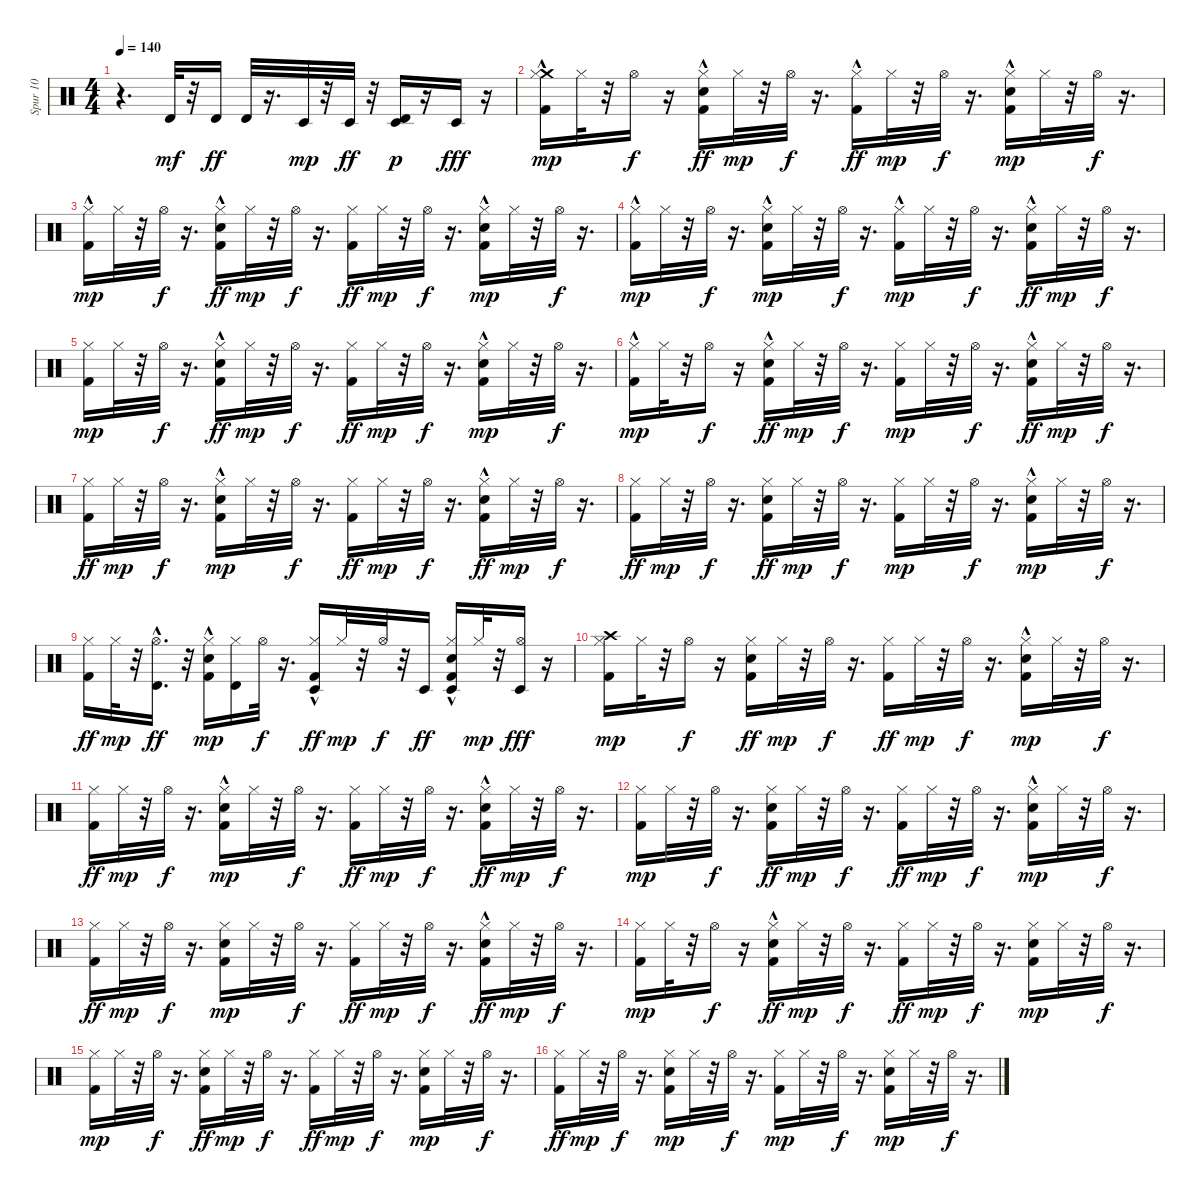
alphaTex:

\track ("Spur 10" "Spur 10") {instrument percussion}
\staff {score}
\articulation defaults
\ts (4 4)
\tempo 140
\clef neutral
\ks c
r.4{d dy f} "Timbale high (hit)".32{dy mf} r.32 "Timbale high (hit)".16{dy ff} "Timbale high (hit)".32 r.16{d} "Timbale low (hit)".32{dy mp} r.32 "Timbale low (hit)".32{dy ff} r.32 ("Timbale low (hit)" "Timbale high (hit)").16{dy p} r.16 "Timbale low (hit)".16{dy fff} r.16 |
("Crash medium (hit)" "Kick (hit) 2"{hac} "Hi-Hat (closed)").16{dy mp} "Hi-Hat (closed)".32 r.32 "Hi-Hat (open)".16{dy f} r.16 ("Hi-Hat (closed)" "Kick (hit) 2"{hac} "Electric Snare (hit)"{hac}).16{dy ff} "Hi-Hat (closed)".32{dy mp} r.32 "Hi-Hat (open)".32{dy f} r.16{d} ("Hi-Hat (closed)" "Kick (hit) 2"{hac}).16{dy ff} "Hi-Hat (closed)".32{dy mp} r.32 "Hi-Hat (open)".32{dy f} r.16{d} ("Kick (hit) 2"{hac} "Electric Snare (hit)" "Hi-Hat (closed)").16{dy mp} "Hi-Hat (closed)".32 r.32 "Hi-Hat (open)".32{dy f} r.16{d} |
("Kick (hit) 2"{hac} "Hi-Hat (closed)").16{dy mp} "Hi-Hat (closed)".32 r.32 "Hi-Hat (open)".32{dy f} r.16{d} ("Hi-Hat (closed)" "Electric Snare (hit)"{hac} "Kick (hit) 2"{hac}).16{dy ff} "Hi-Hat (closed)".32{dy mp} r.32 "Hi-Hat (open)".32{dy f} r.16{d} ("Hi-Hat (closed)" "Kick (hit) 2").16{dy ff} "Hi-Hat (closed)".32{dy mp} r.32 "Hi-Hat (open)".32{dy f} r.16{d} ("Kick (hit) 2"{hac} "Hi-Hat (closed)" "Electric Snare (hit)"{hac}).16{dy mp} "Hi-Hat (closed)".32 r.32 "Hi-Hat (open)".32{dy f} r.16{d} |
("Kick (hit) 2"{hac} "Hi-Hat (closed)").16{dy mp} "Hi-Hat (closed)".32 r.32 "Hi-Hat (open)".32{dy f} r.16{d} ("Kick (hit) 2"{hac} "Hi-Hat (closed)" "Electric Snare (hit)").16{dy mp} "Hi-Hat (closed)".32 r.32 "Hi-Hat (open)".32{dy f} r.16{d} ("Kick (hit) 2"{hac} "Hi-Hat (closed)").16{dy mp} "Hi-Hat (closed)".32 r.32 "Hi-Hat (open)".32{dy f} r.16{d} ("Electric Snare (hit)"{hac} "Hi-Hat (closed)" "Kick (hit) 2").16{dy ff} "Hi-Hat (closed)".32{dy mp} r.32 "Hi-Hat (open)".32{dy f} r.16{d} |
("Kick (hit) 2" "Hi-Hat (closed)").16{dy mp} "Hi-Hat (closed)".32 r.32 "Hi-Hat (open)".32{dy f} r.16{d} ("Electric Snare (hit)"{hac} "Hi-Hat (closed)" "Kick (hit) 2").16{dy ff} "Hi-Hat (closed)".32{dy mp} r.32 "Hi-Hat (open)".32{dy f} r.16{d} ("Hi-Hat (closed)" "Kick (hit) 2").16{dy ff} "Hi-Hat (closed)".32{dy mp} r.32 "Hi-Hat (open)".32{dy f} r.16{d} ("Electric Snare (hit)"{hac} "Kick (hit) 2"{hac} "Hi-Hat (closed)").16{dy mp} "Hi-Hat (closed)".32 r.32 "Hi-Hat (open)".32{dy f} r.16{d} |
("Kick (hit) 2"{hac} "Hi-Hat (closed)").16{dy mp} "Hi-Hat (closed)".32 r.32 "Hi-Hat (open)".16{dy f} r.16 ("Electric Snare (hit)"{hac} "Hi-Hat (closed)" "Kick (hit) 2"{hac}).16{dy ff} "Hi-Hat (closed)".32{dy mp} r.32 "Hi-Hat (open)".32{dy f} r.16{d} ("Kick (hit) 2" "Hi-Hat (closed)").16{dy mp} "Hi-Hat (closed)".32 r.32 "Hi-Hat (open)".32{dy f} r.16{d} ("Hi-Hat (closed)" "Electric Snare (hit)"{hac} "Kick (hit) 2"{hac}).16{dy ff} "Hi-Hat (closed)".32{dy mp} r.32 "Hi-Hat (open)".32{dy f} r.16{d} |
("Hi-Hat (closed)" "Kick (hit) 2").16{dy ff} "Hi-Hat (closed)".32{dy mp} r.32 "Hi-Hat (open)".32{dy f} r.16{d} ("Kick (hit) 2" "Hi-Hat (closed)" "Electric Snare (hit)"{hac}).16{dy mp} "Hi-Hat (closed)".32 r.32 "Hi-Hat (open)".32{dy f} r.16{d} ("Hi-Hat (closed)" "Kick (hit) 2").16{dy ff} "Hi-Hat (closed)".32{dy mp} r.32 "Hi-Hat (open)".32{dy f} r.16{d} ("Hi-Hat (closed)" "Electric Snare (hit)"{hac} "Kick (hit) 2").16{dy ff} "Hi-Hat (closed)".32{dy mp} r.32 "Hi-Hat (open)".32{dy f} r.16{d} |
("Hi-Hat (closed)" "Kick (hit) 2").16{dy ff} "Hi-Hat (closed)".32{dy mp} r.32 "Hi-Hat (open)".32{dy f} r.16{d} ("Hi-Hat (closed)" "Kick (hit) 2" "Electric Snare (hit)").16{dy ff} "Hi-Hat (closed)".32{dy mp} r.32 "Hi-Hat (open)".32{dy f} r.16{d} ("Kick (hit) 2" "Hi-Hat (closed)").16{dy mp} "Hi-Hat (closed)".32 r.32 "Hi-Hat (open)".32{dy f} r.16{d} ("Electric Snare (hit)"{hac} "Kick (hit) 2" "Hi-Hat (closed)").16{dy mp} "Hi-Hat (closed)".32 r.32 "Hi-Hat (open)".32{dy f} r.16{d} |
("Hi-Hat (closed)" "Kick (hit) 2").16{dy ff} "Hi-Hat (closed)".32{dy mp} r.32 ("Timbale high (hit)"{hac} "Hi-Hat (open)").16{d dy ff} r.32 ("Kick (hit) 2" "Hi-Hat (closed)" "Electric Snare (hit)"{hac}).16{dy mp} ("Timbale high (hit)" "Hi-Hat (closed)").16 "Hi-Hat (open)".32{dy f} r.16{d} ("Timbale low (hit)"{hac} "Hi-Hat (closed)" "Kick (hit) 2").16{dy ff} "Hi-Hat (closed)".32{dy mp} r.32 "Hi-Hat (open)".32{dy f} r.32 "Timbale low (hit)".16{dy ff} ("Hi-Hat (closed)" "Electric Snare (hit)"{hac} "Kick (hit) 2" "Timbale low (hit)").16 "Hi-Hat (closed)".32{dy mp} r.32 ("Timbale low (hit)" "Hi-Hat (open)").16{dy fff} r.16 |
("Kick (hit) 2" "Hi-Hat (closed)" "Crash high (hit)").16{dy mp} "Hi-Hat (closed)".32 r.32 "Hi-Hat (open)".16{dy f} r.16 ("Hi-Hat (closed)" "Electric Snare (hit)" "Kick (hit) 2").16{dy ff} "Hi-Hat (closed)".32{dy mp} r.32 "Hi-Hat (open)".32{dy f} r.16{d} ("Hi-Hat (closed)" "Kick (hit) 2").16{dy ff} "Hi-Hat (closed)".32{dy mp} r.32 "Hi-Hat (open)".32{dy f} r.16{d} ("Kick (hit) 2" "Hi-Hat (closed)" "Electric Snare (hit)"{hac}).16{dy mp} "Hi-Hat (closed)".32 r.32 "Hi-Hat (open)".32{dy f} r.16{d} |
("Hi-Hat (closed)" "Kick (hit) 2").16{dy ff} "Hi-Hat (closed)".32{dy mp} r.32 "Hi-Hat (open)".32{dy f} r.16{d} ("Kick (hit) 2" "Electric Snare (hit)"{hac} "Hi-Hat (closed)").16{dy mp} "Hi-Hat (closed)".32 r.32 "Hi-Hat (open)".32{dy f} r.16{d} ("Hi-Hat (closed)" "Kick (hit) 2").16{dy ff} "Hi-Hat (closed)".32{dy mp} r.32 "Hi-Hat (open)".32{dy f} r.16{d} ("Hi-Hat (closed)" "Electric Snare (hit)"{hac} "Kick (hit) 2").16{dy ff} "Hi-Hat (closed)".32{dy mp} r.32 "Hi-Hat (open)".32{dy f} r.16{d} |
("Kick (hit) 2" "Hi-Hat (closed)").16{dy mp} "Hi-Hat (closed)".32 r.32 "Hi-Hat (open)".32{dy f} r.16{d} ("Electric Snare (hit)" "Hi-Hat (closed)" "Kick (hit) 2").16{dy ff} "Hi-Hat (closed)".32{dy mp} r.32 "Hi-Hat (open)".32{dy f} r.16{d} ("Hi-Hat (closed)" "Kick (hit) 2").16{dy ff} "Hi-Hat (closed)".32{dy mp} r.32 "Hi-Hat (open)".32{dy f} r.16{d} ("Kick (hit) 2" "Electric Snare (hit)"{hac} "Hi-Hat (closed)").16{dy mp} "Hi-Hat (closed)".32 r.32 "Hi-Hat (open)".32{dy f} r.16{d} |
("Hi-Hat (closed)" "Kick (hit) 2").16{dy ff} "Hi-Hat (closed)".32{dy mp} r.32 "Hi-Hat (open)".32{dy f} r.16{d} ("Electric Snare (hit)" "Kick (hit) 2" "Hi-Hat (closed)").16{dy mp} "Hi-Hat (closed)".32 r.32 "Hi-Hat (open)".32{dy f} r.16{d} ("Hi-Hat (closed)" "Kick (hit) 2").16{dy ff} "Hi-Hat (closed)".32{dy mp} r.32 "Hi-Hat (open)".32{dy f} r.16{d} ("Hi-Hat (closed)" "Electric Snare (hit)"{hac} "Kick (hit) 2").16{dy ff} "Hi-Hat (closed)".32{dy mp} r.32 "Hi-Hat (open)".32{dy f} r.16{d} |
("Kick (hit) 2" "Hi-Hat (closed)").16{dy mp} "Hi-Hat (closed)".32 r.32 "Hi-Hat (open)".16{dy f} r.16 ("Electric Snare (hit)"{hac} "Hi-Hat (closed)" "Kick (hit) 2").16{dy ff} "Hi-Hat (closed)".32{dy mp} r.32 "Hi-Hat (open)".32{dy f} r.16{d} ("Hi-Hat (closed)" "Kick (hit) 2").16{dy ff} "Hi-Hat (closed)".32{dy mp} r.32 "Hi-Hat (open)".32{dy f} r.16{d} ("Kick (hit) 2" "Hi-Hat (closed)" "Electric Snare (hit)").16{dy mp} "Hi-Hat (closed)".32 r.32 "Hi-Hat (open)".32{dy f} r.16{d} |
("Kick (hit) 2" "Hi-Hat (closed)").16{dy mp} "Hi-Hat (closed)".32 r.32 "Hi-Hat (open)".32{dy f} r.16{d} ("Hi-Hat (closed)" "Kick (hit) 2" "Electric Snare (hit)").16{dy ff} "Hi-Hat (closed)".32{dy mp} r.32 "Hi-Hat (open)".32{dy f} r.16{d} ("Hi-Hat (closed)" "Kick (hit) 2").16{dy ff} "Hi-Hat (closed)".32{dy mp} r.32 "Hi-Hat (open)".32{dy f} r.16{d} ("Kick (hit) 2" "Hi-Hat (closed)" "Electric Snare (hit)").16{dy mp} "Hi-Hat (closed)".32 r.32 "Hi-Hat (open)".32{dy f} r.16{d} |
("Hi-Hat (closed)" "Kick (hit) 2").16{dy ff} "Hi-Hat (closed)".32{dy mp} r.32 "Hi-Hat (open)".32{dy f} r.16{d} ("Kick (hit) 2" "Hi-Hat (closed)" "Electric Snare (hit)").16{dy mp} "Hi-Hat (closed)".32 r.32 "Hi-Hat (open)".32{dy f} r.16{d} ("Kick (hit) 2" "Hi-Hat (closed)").16{dy mp} "Hi-Hat (closed)".32 r.32 "Hi-Hat (open)".32{dy f} r.16{d} ("Kick (hit) 2" "Electric Snare (hit)" "Hi-Hat (closed)").16{dy mp} "Hi-Hat (closed)".32 r.32 "Hi-Hat (open)".32{dy f} r.16{d}
